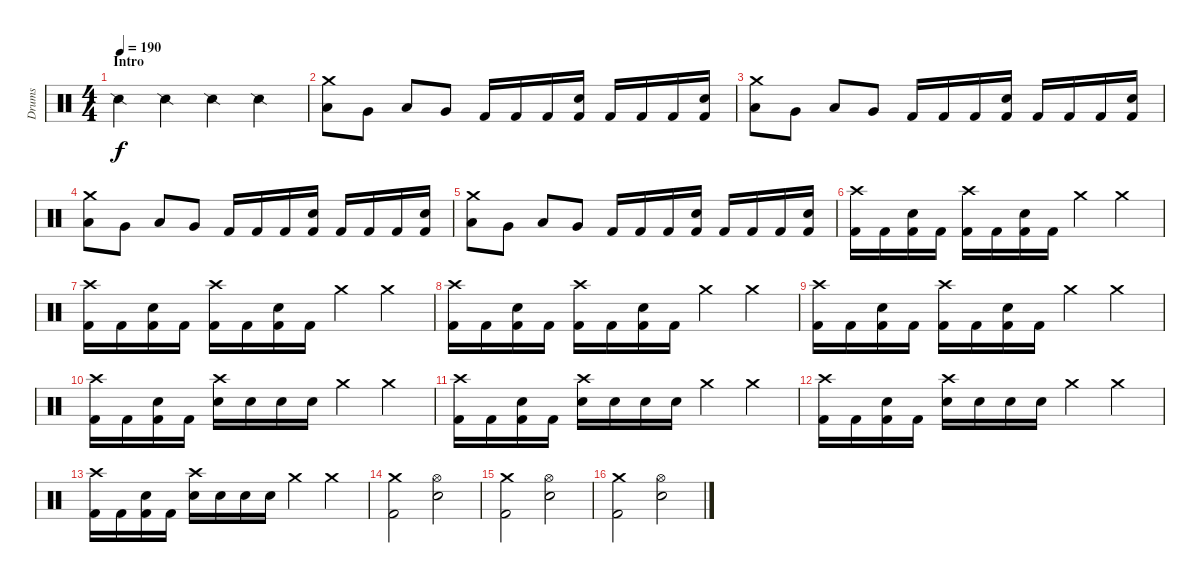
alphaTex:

\track ("Drums" "Drums") {instrument percussion}
\staff {score}
\articulation defaults
\ts (4 4)
\section ("" "Intro")
\tempo 190
\clef neutral
\ks c "Snare (side stick) 2".4{dy f} "Snare (side stick) 2".4 "Snare (side stick) 2".4 "Snare (side stick) 2".4
|
("Crash medium (hit)" "Low Floor Tom (hit)").8 "Very Low Tom (hit)".8 "Low Floor Tom (hit)".8 "Very Low Tom (hit)".8 "Kick (hit) 2".16 "Kick (hit) 2".16 "Kick (hit) 2".16 ("Snare (hit) 2" "Kick (hit) 2").16 "Kick (hit) 2".16 "Kick (hit) 2".16 "Kick (hit) 2".16 ("Snare (hit) 2" "Kick (hit) 2").16 |
("Crash medium (hit)" "Low Floor Tom (hit)").8 "Very Low Tom (hit)".8 "Low Floor Tom (hit)".8 "Very Low Tom (hit)".8 "Kick (hit) 2".16 "Kick (hit) 2".16 "Kick (hit) 2".16 ("Snare (hit) 2" "Kick (hit) 2").16 "Kick (hit) 2".16 "Kick (hit) 2".16 "Kick (hit) 2".16 ("Snare (hit) 2" "Kick (hit) 2").16 |
("Crash medium (hit)" "Low Floor Tom (hit)").8 "Very Low Tom (hit)".8 "Low Floor Tom (hit)".8 "Very Low Tom (hit)".8 "Kick (hit) 2".16 "Kick (hit) 2".16 "Kick (hit) 2".16 ("Snare (hit) 2" "Kick (hit) 2").16 "Kick (hit) 2".16 "Kick (hit) 2".16 "Kick (hit) 2".16 ("Snare (hit) 2" "Kick (hit) 2").16 |
("Crash medium (hit)" "Low Floor Tom (hit)").8 "Very Low Tom (hit)".8 "Low Floor Tom (hit)".8 "Very Low Tom (hit)".8 "Kick (hit) 2".16 "Kick (hit) 2".16 "Kick (hit) 2".16 ("Snare (hit) 2" "Kick (hit) 2").16 "Kick (hit) 2".16 "Kick (hit) 2".16 "Kick (hit) 2".16 ("Snare (hit) 2" "Kick (hit) 2").16 |
("Crash high (hit)" "Kick (hit) 2").16 "Kick (hit) 2".16 ("Snare (hit) 2" "Kick (hit) 2").16 "Kick (hit) 2".16 ("Crash high (hit)" "Kick (hit) 2").16 "Kick (hit) 2".16 ("Snare (hit) 2" "Kick (hit) 2").16 "Kick (hit) 2".16 "Crash medium (hit)".4 "Crash medium (hit)".4 |
("Crash high (hit)" "Kick (hit) 2").16 "Kick (hit) 2".16 ("Snare (hit) 2" "Kick (hit) 2").16 "Kick (hit) 2".16 ("Crash high (hit)" "Kick (hit) 2").16 "Kick (hit) 2".16 ("Snare (hit) 2" "Kick (hit) 2").16 "Kick (hit) 2".16 "Crash medium (hit)".4 "Crash medium (hit)".4 |
("Crash high (hit)" "Kick (hit) 2").16 "Kick (hit) 2".16 ("Snare (hit) 2" "Kick (hit) 2").16 "Kick (hit) 2".16 ("Crash high (hit)" "Kick (hit) 2").16 "Kick (hit) 2".16 ("Snare (hit) 2" "Kick (hit) 2").16 "Kick (hit) 2".16 "Crash medium (hit)".4 "Crash medium (hit)".4 |
("Crash high (hit)" "Kick (hit) 2").16 "Kick (hit) 2".16 ("Snare (hit) 2" "Kick (hit) 2").16 "Kick (hit) 2".16 ("Crash high (hit)" "Kick (hit) 2").16 "Kick (hit) 2".16 ("Snare (hit) 2" "Kick (hit) 2").16 "Kick (hit) 2".16 "Crash medium (hit)".4 "Crash medium (hit)".4 |
("Crash high (hit)" "Kick (hit) 2").16 "Kick (hit) 2".16 ("Snare (hit) 2" "Kick (hit) 2").16 "Kick (hit) 2".16 ("Crash high (hit)" "Snare (hit) 2").16 "Snare (hit) 2".16 "Snare (hit) 2".16 "Snare (hit) 2".16 "Crash medium (hit)".4 "Crash medium (hit)".4 |
("Crash high (hit)" "Kick (hit) 2").16 "Kick (hit) 2".16 ("Snare (hit) 2" "Kick (hit) 2").16 "Kick (hit) 2".16 ("Crash high (hit)" "Snare (hit) 2").16 "Snare (hit) 2".16 "Snare (hit) 2".16 "Snare (hit) 2".16 "Crash medium (hit)".4 "Crash medium (hit)".4 |
("Crash high (hit)" "Kick (hit) 2").16 "Kick (hit) 2".16 ("Snare (hit) 2" "Kick (hit) 2").16 "Kick (hit) 2".16 ("Crash high (hit)" "Snare (hit) 2").16 "Snare (hit) 2".16 "Snare (hit) 2".16 "Snare (hit) 2".16 "Crash medium (hit)".4 "Crash medium (hit)".4 |
("Crash high (hit)" "Kick (hit) 2").16 "Kick (hit) 2".16 ("Snare (hit) 2" "Kick (hit) 2").16 "Kick (hit) 2".16 ("Crash high (hit)" "Snare (hit) 2").16 "Snare (hit) 2".16 "Snare (hit) 2".16 "Snare (hit) 2".16 "Crash medium (hit)".4 "Crash medium (hit)".4 |
("Crash medium (hit)" "Kick (hit) 2").2 ("Hi-Hat (open)" "Snare (hit) 2").2 |
("Crash medium (hit)" "Kick (hit) 2").2 ("Hi-Hat (open)" "Snare (hit) 2").2 |
("Crash medium (hit)" "Kick (hit) 2").2 ("Hi-Hat (open)" "Snare (hit) 2").2
